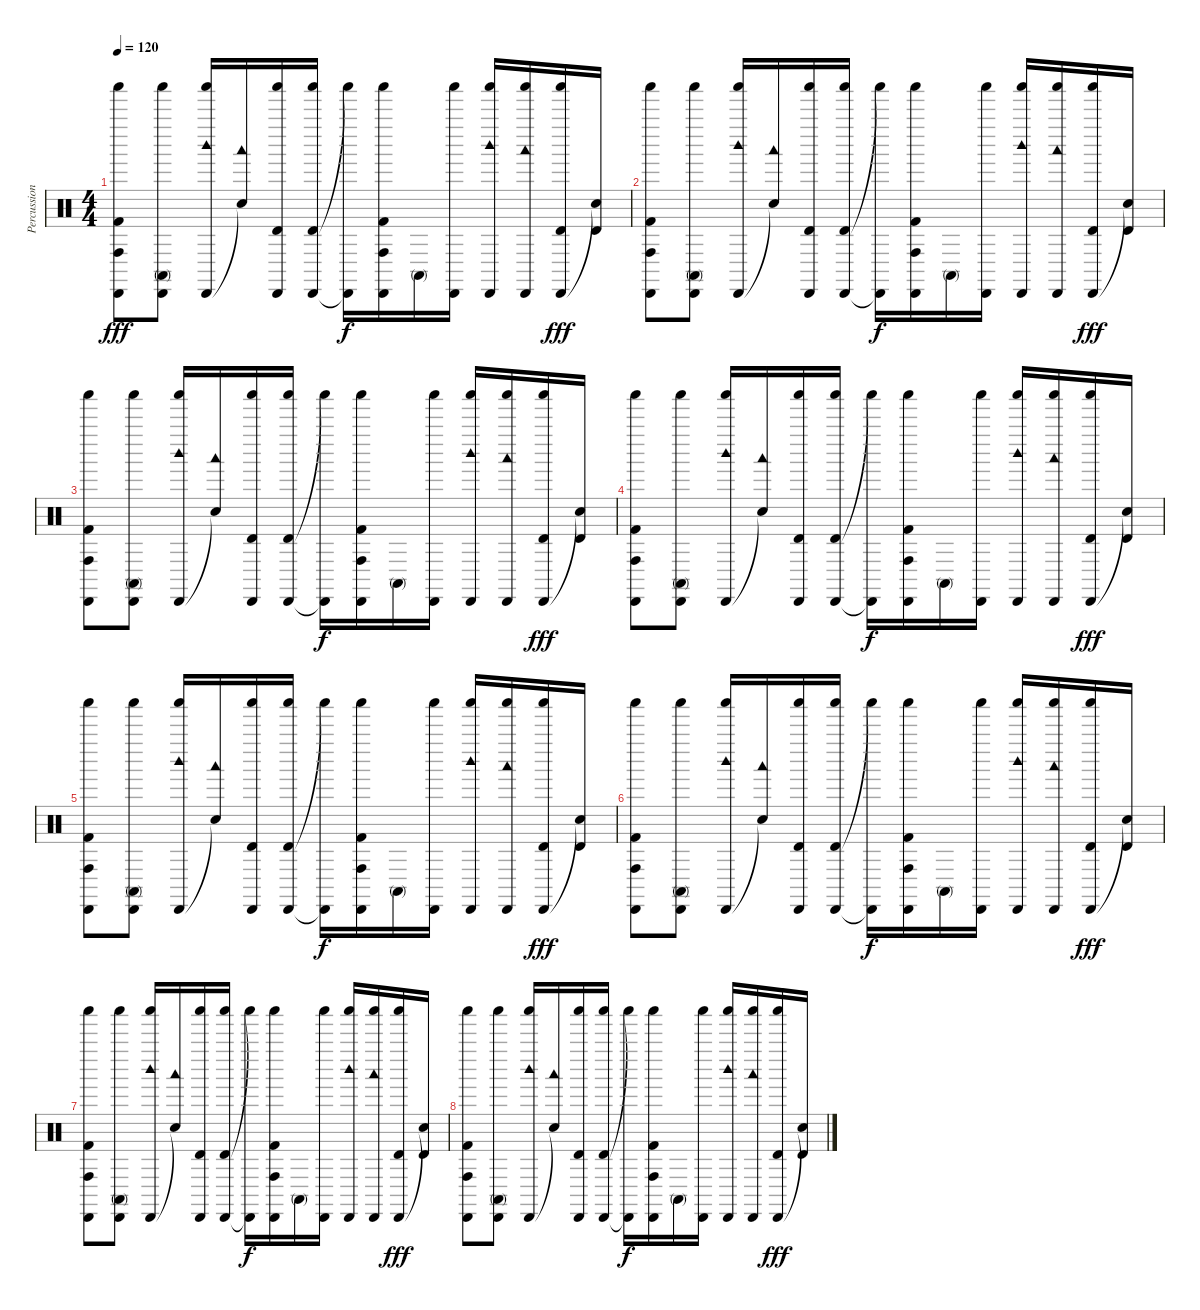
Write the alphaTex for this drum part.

\track ("Percussion" "Percussion") {instrument percussion}
\staff {score}
\articulation defaults
\ts (4 4)
\tempo 120
\clef neutral
\ks c
("Cabasa (hit)" "Conga high (hit)" "Kick (hit) 2" "Shaker (hit)").8{dy fff} ("Cabasa (hit)" "Conga high (mute)" "Shaker (hit)").8 ("Cabasa (hit)" "Woodblock high (hit)" "Shaker (hit)").16 ("Snare (hit)"{t} "Woodblock low (hit)").16 ("Cabasa (hit)" "Timbale high (hit)" "Shaker (hit)").16 ("Cabasa (hit)" "Timbale high (hit)" "Shaker (hit)").16 ("Cabasa (hit)"{t} "Shaker (hit)"{t}).16{dy f} ("Cabasa (hit)" "Conga high (hit)" "Kick (hit) 2" "Shaker (hit)").16 "Conga high (mute)".16 ("Cabasa (hit)" "Shaker (hit)").16 ("Cabasa (hit)" "Woodblock high (hit)" "Shaker (hit)").16 ("Cabasa (hit)" "Woodblock low (hit)" "Shaker (hit)").16 ("Cabasa (hit)" "Timbale high (hit)" "Shaker (hit)").16{dy fff} ("Snare (hit)"{t} "Timbale high (hit)").16 |
("Cabasa (hit)" "Conga high (hit)" "Kick (hit) 2" "Shaker (hit)").8 ("Cabasa (hit)" "Conga high (mute)" "Shaker (hit)").8 ("Cabasa (hit)" "Woodblock high (hit)" "Shaker (hit)").16 ("Snare (hit)"{t} "Woodblock low (hit)").16 ("Cabasa (hit)" "Timbale high (hit)" "Shaker (hit)").16 ("Cabasa (hit)" "Timbale high (hit)" "Shaker (hit)").16 ("Cabasa (hit)"{t} "Shaker (hit)"{t}).16{dy f} ("Cabasa (hit)" "Conga high (hit)" "Kick (hit) 2" "Shaker (hit)").16 "Conga high (mute)".16 ("Cabasa (hit)" "Shaker (hit)").16 ("Cabasa (hit)" "Woodblock high (hit)" "Shaker (hit)").16 ("Cabasa (hit)" "Woodblock low (hit)" "Shaker (hit)").16 ("Cabasa (hit)" "Timbale high (hit)" "Shaker (hit)").16{dy fff} ("Snare (hit)"{t} "Timbale high (hit)").16 |
("Cabasa (hit)" "Conga high (hit)" "Kick (hit) 2" "Shaker (hit)").8 ("Cabasa (hit)" "Conga high (mute)" "Shaker (hit)").8 ("Cabasa (hit)" "Woodblock high (hit)" "Shaker (hit)").16 ("Snare (hit)"{t} "Woodblock low (hit)").16 ("Cabasa (hit)" "Timbale high (hit)" "Shaker (hit)").16 ("Cabasa (hit)" "Timbale high (hit)" "Shaker (hit)").16 ("Cabasa (hit)"{t} "Shaker (hit)"{t}).16{dy f} ("Cabasa (hit)" "Conga high (hit)" "Kick (hit) 2" "Shaker (hit)").16 "Conga high (mute)".16 ("Cabasa (hit)" "Shaker (hit)").16 ("Cabasa (hit)" "Woodblock high (hit)" "Shaker (hit)").16 ("Cabasa (hit)" "Woodblock low (hit)" "Shaker (hit)").16 ("Cabasa (hit)" "Timbale high (hit)" "Shaker (hit)").16{dy fff} ("Snare (hit)"{t} "Timbale high (hit)").16 |
("Cabasa (hit)" "Conga high (hit)" "Kick (hit) 2" "Shaker (hit)").8 ("Cabasa (hit)" "Conga high (mute)" "Shaker (hit)").8 ("Cabasa (hit)" "Woodblock high (hit)" "Shaker (hit)").16 ("Snare (hit)"{t} "Woodblock low (hit)").16 ("Cabasa (hit)" "Timbale high (hit)" "Shaker (hit)").16 ("Cabasa (hit)" "Timbale high (hit)" "Shaker (hit)").16 ("Cabasa (hit)"{t} "Shaker (hit)"{t}).16{dy f} ("Cabasa (hit)" "Conga high (hit)" "Kick (hit) 2" "Shaker (hit)").16 "Conga high (mute)".16 ("Cabasa (hit)" "Shaker (hit)").16 ("Cabasa (hit)" "Woodblock high (hit)" "Shaker (hit)").16 ("Cabasa (hit)" "Woodblock low (hit)" "Shaker (hit)").16 ("Cabasa (hit)" "Timbale high (hit)" "Shaker (hit)").16{dy fff} ("Snare (hit)"{t} "Timbale high (hit)").16 |
("Cabasa (hit)" "Conga high (hit)" "Kick (hit) 2" "Shaker (hit)").8 ("Cabasa (hit)" "Conga high (mute)" "Shaker (hit)").8 ("Cabasa (hit)" "Woodblock high (hit)" "Shaker (hit)").16 ("Snare (hit)"{t} "Woodblock low (hit)").16 ("Cabasa (hit)" "Timbale high (hit)" "Shaker (hit)").16 ("Cabasa (hit)" "Timbale high (hit)" "Shaker (hit)").16 ("Cabasa (hit)"{t} "Shaker (hit)"{t}).16{dy f} ("Cabasa (hit)" "Conga high (hit)" "Kick (hit) 2" "Shaker (hit)").16 "Conga high (mute)".16 ("Cabasa (hit)" "Shaker (hit)").16 ("Cabasa (hit)" "Woodblock high (hit)" "Shaker (hit)").16 ("Cabasa (hit)" "Woodblock low (hit)" "Shaker (hit)").16 ("Cabasa (hit)" "Timbale high (hit)" "Shaker (hit)").16{dy fff} ("Snare (hit)"{t} "Timbale high (hit)").16 |
("Cabasa (hit)" "Conga high (hit)" "Kick (hit) 2" "Shaker (hit)").8 ("Cabasa (hit)" "Conga high (mute)" "Shaker (hit)").8 ("Cabasa (hit)" "Woodblock high (hit)" "Shaker (hit)").16 ("Snare (hit)"{t} "Woodblock low (hit)").16 ("Cabasa (hit)" "Timbale high (hit)" "Shaker (hit)").16 ("Cabasa (hit)" "Timbale high (hit)" "Shaker (hit)").16 ("Cabasa (hit)"{t} "Shaker (hit)"{t}).16{dy f} ("Cabasa (hit)" "Conga high (hit)" "Kick (hit) 2" "Shaker (hit)").16 "Conga high (mute)".16 ("Cabasa (hit)" "Shaker (hit)").16 ("Cabasa (hit)" "Woodblock high (hit)" "Shaker (hit)").16 ("Cabasa (hit)" "Woodblock low (hit)" "Shaker (hit)").16 ("Cabasa (hit)" "Timbale high (hit)" "Shaker (hit)").16{dy fff} ("Snare (hit)"{t} "Timbale high (hit)").16 |
("Cabasa (hit)" "Conga high (hit)" "Kick (hit) 2" "Shaker (hit)").8 ("Cabasa (hit)" "Conga high (mute)" "Shaker (hit)").8 ("Cabasa (hit)" "Woodblock high (hit)" "Shaker (hit)").16 ("Snare (hit)"{t} "Woodblock low (hit)").16 ("Cabasa (hit)" "Timbale high (hit)" "Shaker (hit)").16 ("Cabasa (hit)" "Timbale high (hit)" "Shaker (hit)").16 ("Cabasa (hit)"{t} "Shaker (hit)"{t}).16{dy f} ("Cabasa (hit)" "Conga high (hit)" "Kick (hit) 2" "Shaker (hit)").16 "Conga high (mute)".16 ("Cabasa (hit)" "Shaker (hit)").16 ("Cabasa (hit)" "Woodblock high (hit)" "Shaker (hit)").16 ("Cabasa (hit)" "Woodblock low (hit)" "Shaker (hit)").16 ("Cabasa (hit)" "Timbale high (hit)" "Shaker (hit)").16{dy fff} ("Snare (hit)"{t} "Timbale high (hit)").16 |
("Cabasa (hit)" "Conga high (hit)" "Kick (hit) 2" "Shaker (hit)").8 ("Cabasa (hit)" "Conga high (mute)" "Shaker (hit)").8 ("Cabasa (hit)" "Woodblock high (hit)" "Shaker (hit)").16 ("Snare (hit)"{t} "Woodblock low (hit)").16 ("Cabasa (hit)" "Timbale high (hit)" "Shaker (hit)").16 ("Cabasa (hit)" "Timbale high (hit)" "Shaker (hit)").16 ("Cabasa (hit)"{t} "Shaker (hit)"{t}).16{dy f} ("Cabasa (hit)" "Conga high (hit)" "Kick (hit) 2" "Shaker (hit)").16 "Conga high (mute)".16 ("Cabasa (hit)" "Shaker (hit)").16 ("Cabasa (hit)" "Woodblock high (hit)" "Shaker (hit)").16 ("Cabasa (hit)" "Woodblock low (hit)" "Shaker (hit)").16 ("Cabasa (hit)" "Timbale high (hit)" "Shaker (hit)").16{dy fff} ("Snare (hit)"{t} "Timbale high (hit)").16
